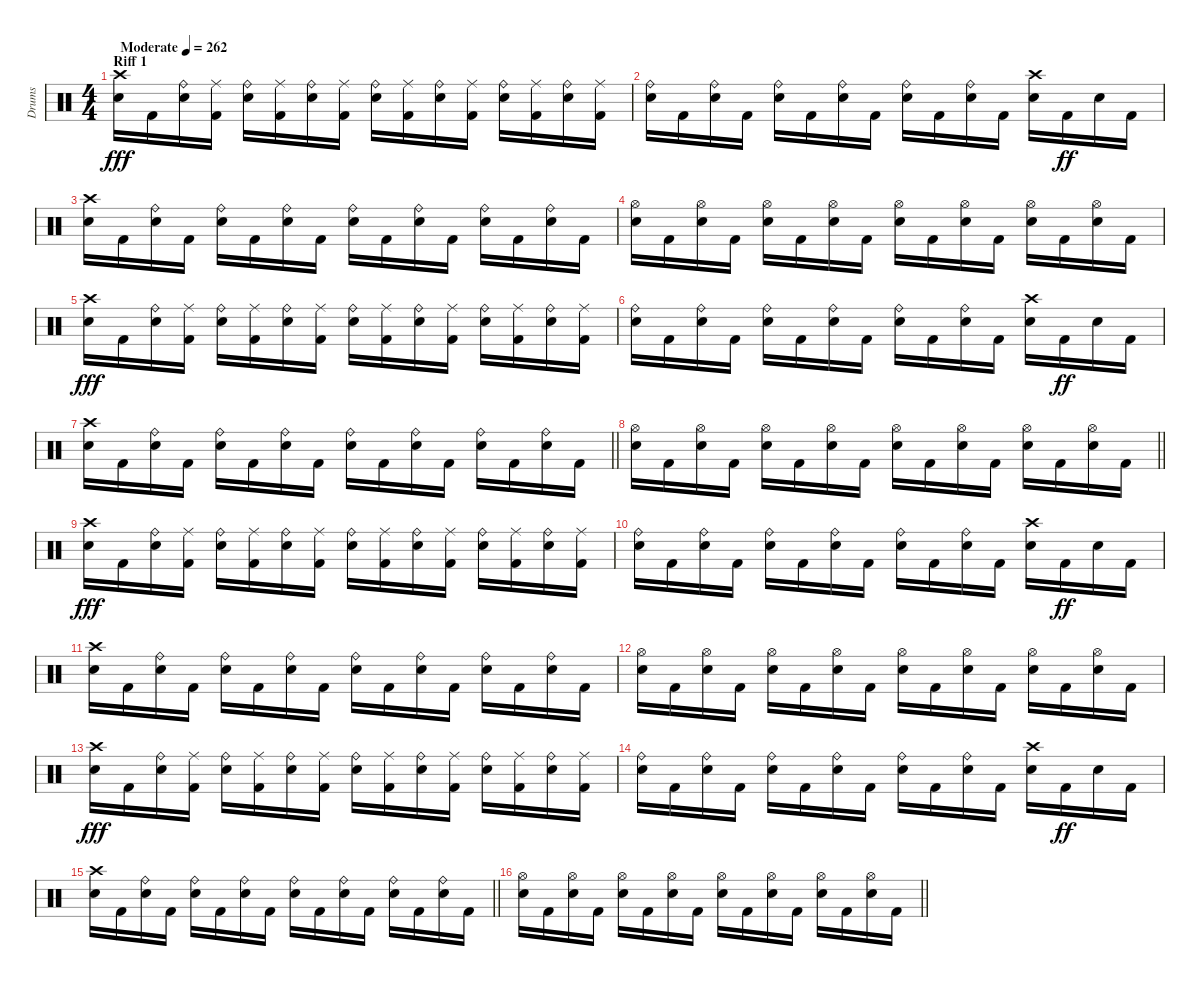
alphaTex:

\track ("Drums" "Drums") {instrument percussion}
\staff {score}
\articulation defaults
\ts (4 4)
\section ("" "Riff 1")
\tempo (262 "Moderate")
\clef neutral
\ks c
("Crash high (hit)" "Snare (hit) 2").16{dy fff} "Kick (hit) 2".16 ("Snare (hit) 2" "Ride (bell)").16 ("Kick (hit) 2" "Ride (middle)").16 ("Snare (hit) 2" "Ride (bell)").16 ("Kick (hit) 2" "Ride (middle)").16 ("Snare (hit) 2" "Ride (bell)").16 ("Kick (hit) 2" "Ride (middle)").16 ("Snare (hit) 2" "Ride (bell)").16 ("Kick (hit) 2" "Ride (middle)").16 ("Snare (hit) 2" "Ride (bell)").16 ("Kick (hit) 2" "Ride (middle)").16 ("Snare (hit) 2" "Ride (bell)").16 ("Kick (hit) 2" "Ride (middle)").16 ("Snare (hit) 2" "Ride (bell)").16 ("Kick (hit) 2" "Ride (middle)").16 |
("Snare (hit) 2" "Ride (bell)").16 "Kick (hit) 2".16 ("Snare (hit) 2" "Ride (bell)").16 "Kick (hit) 2".16 ("Snare (hit) 2" "Ride (bell)").16 "Kick (hit) 2".16 ("Snare (hit) 2" "Ride (bell)").16 "Kick (hit) 2".16 ("Snare (hit) 2" "Ride (bell)").16 "Kick (hit) 2".16 ("Snare (hit) 2" "Ride (bell)").16 "Kick (hit) 2".16 ("Crash high (hit)" "Snare (hit) 2").16 "Kick (hit) 2".16{dy ff} "Snare (hit) 2".16 "Kick (hit) 2".16 |
("Crash high (hit)" "Snare (hit) 2").16 "Kick (hit) 2".16 ("Snare (hit) 2" "Ride (bell)").16 "Kick (hit) 2".16 ("Snare (hit) 2" "Ride (bell)").16 "Kick (hit) 2".16 ("Snare (hit) 2" "Ride (bell)").16 "Kick (hit) 2".16 ("Snare (hit) 2" "Ride (bell)").16 "Kick (hit) 2".16 ("Snare (hit) 2" "Ride (bell)").16 "Kick (hit) 2".16 ("Snare (hit) 2" "Ride (bell)").16 "Kick (hit) 2".16 ("Snare (hit) 2" "Ride (bell)").16 "Kick (hit) 2".16 |
("Hi-Hat (open)" "Snare (hit) 2").16 "Kick (hit) 2".16 ("Hi-Hat (open)" "Snare (hit) 2").16 "Kick (hit) 2".16 ("Hi-Hat (open)" "Snare (hit) 2").16 "Kick (hit) 2".16 ("Hi-Hat (open)" "Snare (hit) 2").16 "Kick (hit) 2".16 ("Hi-Hat (open)" "Snare (hit) 2").16 "Kick (hit) 2".16 ("Hi-Hat (open)" "Snare (hit) 2").16 "Kick (hit) 2".16 ("Hi-Hat (open)" "Snare (hit) 2").16 "Kick (hit) 2".16 ("Hi-Hat (open)" "Snare (hit) 2").16 "Kick (hit) 2".16 |
("Crash high (hit)" "Snare (hit) 2").16{dy fff} "Kick (hit) 2".16 ("Snare (hit) 2" "Ride (bell)").16 ("Kick (hit) 2" "Ride (middle)").16 ("Snare (hit) 2" "Ride (bell)").16 ("Kick (hit) 2" "Ride (middle)").16 ("Snare (hit) 2" "Ride (bell)").16 ("Kick (hit) 2" "Ride (middle)").16 ("Snare (hit) 2" "Ride (bell)").16 ("Kick (hit) 2" "Ride (middle)").16 ("Snare (hit) 2" "Ride (bell)").16 ("Kick (hit) 2" "Ride (middle)").16 ("Snare (hit) 2" "Ride (bell)").16 ("Kick (hit) 2" "Ride (middle)").16 ("Snare (hit) 2" "Ride (bell)").16 ("Kick (hit) 2" "Ride (middle)").16 |
("Snare (hit) 2" "Ride (bell)").16 "Kick (hit) 2".16 ("Snare (hit) 2" "Ride (bell)").16 "Kick (hit) 2".16 ("Snare (hit) 2" "Ride (bell)").16 "Kick (hit) 2".16 ("Snare (hit) 2" "Ride (bell)").16 "Kick (hit) 2".16 ("Snare (hit) 2" "Ride (bell)").16 "Kick (hit) 2".16 ("Snare (hit) 2" "Ride (bell)").16 "Kick (hit) 2".16 ("Crash high (hit)" "Snare (hit) 2").16 "Kick (hit) 2".16{dy ff} "Snare (hit) 2".16 "Kick (hit) 2".16 |
\barLineRight lightlight
("Crash high (hit)" "Snare (hit) 2").16 "Kick (hit) 2".16 ("Snare (hit) 2" "Ride (bell)").16 "Kick (hit) 2".16 ("Snare (hit) 2" "Ride (bell)").16 "Kick (hit) 2".16 ("Snare (hit) 2" "Ride (bell)").16 "Kick (hit) 2".16 ("Snare (hit) 2" "Ride (bell)").16 "Kick (hit) 2".16 ("Snare (hit) 2" "Ride (bell)").16 "Kick (hit) 2".16 ("Snare (hit) 2" "Ride (bell)").16 "Kick (hit) 2".16 ("Snare (hit) 2" "Ride (bell)").16 "Kick (hit) 2".16 |
\barLineRight lightlight
("Hi-Hat (open)" "Snare (hit) 2").16 "Kick (hit) 2".16 ("Hi-Hat (open)" "Snare (hit) 2").16 "Kick (hit) 2".16 ("Hi-Hat (open)" "Snare (hit) 2").16 "Kick (hit) 2".16 ("Hi-Hat (open)" "Snare (hit) 2").16 "Kick (hit) 2".16 ("Hi-Hat (open)" "Snare (hit) 2").16 "Kick (hit) 2".16 ("Hi-Hat (open)" "Snare (hit) 2").16 "Kick (hit) 2".16 ("Hi-Hat (open)" "Snare (hit) 2").16 "Kick (hit) 2".16 ("Hi-Hat (open)" "Snare (hit) 2").16 "Kick (hit) 2".16 |
("Crash high (hit)" "Snare (hit) 2").16{dy fff} "Kick (hit) 2".16 ("Snare (hit) 2" "Ride (bell)").16 ("Kick (hit) 2" "Ride (middle)").16 ("Snare (hit) 2" "Ride (bell)").16 ("Kick (hit) 2" "Ride (middle)").16 ("Snare (hit) 2" "Ride (bell)").16 ("Kick (hit) 2" "Ride (middle)").16 ("Snare (hit) 2" "Ride (bell)").16 ("Kick (hit) 2" "Ride (middle)").16 ("Snare (hit) 2" "Ride (bell)").16 ("Kick (hit) 2" "Ride (middle)").16 ("Snare (hit) 2" "Ride (bell)").16 ("Kick (hit) 2" "Ride (middle)").16 ("Snare (hit) 2" "Ride (bell)").16 ("Kick (hit) 2" "Ride (middle)").16 |
("Snare (hit) 2" "Ride (bell)").16 "Kick (hit) 2".16 ("Snare (hit) 2" "Ride (bell)").16 "Kick (hit) 2".16 ("Snare (hit) 2" "Ride (bell)").16 "Kick (hit) 2".16 ("Snare (hit) 2" "Ride (bell)").16 "Kick (hit) 2".16 ("Snare (hit) 2" "Ride (bell)").16 "Kick (hit) 2".16 ("Snare (hit) 2" "Ride (bell)").16 "Kick (hit) 2".16 ("Crash high (hit)" "Snare (hit) 2").16 "Kick (hit) 2".16{dy ff} "Snare (hit) 2".16 "Kick (hit) 2".16 |
("Crash high (hit)" "Snare (hit) 2").16 "Kick (hit) 2".16 ("Snare (hit) 2" "Ride (bell)").16 "Kick (hit) 2".16 ("Snare (hit) 2" "Ride (bell)").16 "Kick (hit) 2".16 ("Snare (hit) 2" "Ride (bell)").16 "Kick (hit) 2".16 ("Snare (hit) 2" "Ride (bell)").16 "Kick (hit) 2".16 ("Snare (hit) 2" "Ride (bell)").16 "Kick (hit) 2".16 ("Snare (hit) 2" "Ride (bell)").16 "Kick (hit) 2".16 ("Snare (hit) 2" "Ride (bell)").16 "Kick (hit) 2".16 |
("Hi-Hat (open)" "Snare (hit) 2").16 "Kick (hit) 2".16 ("Hi-Hat (open)" "Snare (hit) 2").16 "Kick (hit) 2".16 ("Hi-Hat (open)" "Snare (hit) 2").16 "Kick (hit) 2".16 ("Hi-Hat (open)" "Snare (hit) 2").16 "Kick (hit) 2".16 ("Hi-Hat (open)" "Snare (hit) 2").16 "Kick (hit) 2".16 ("Hi-Hat (open)" "Snare (hit) 2").16 "Kick (hit) 2".16 ("Hi-Hat (open)" "Snare (hit) 2").16 "Kick (hit) 2".16 ("Hi-Hat (open)" "Snare (hit) 2").16 "Kick (hit) 2".16 |
("Crash high (hit)" "Snare (hit) 2").16{dy fff} "Kick (hit) 2".16 ("Snare (hit) 2" "Ride (bell)").16 ("Kick (hit) 2" "Ride (middle)").16 ("Snare (hit) 2" "Ride (bell)").16 ("Kick (hit) 2" "Ride (middle)").16 ("Snare (hit) 2" "Ride (bell)").16 ("Kick (hit) 2" "Ride (middle)").16 ("Snare (hit) 2" "Ride (bell)").16 ("Kick (hit) 2" "Ride (middle)").16 ("Snare (hit) 2" "Ride (bell)").16 ("Kick (hit) 2" "Ride (middle)").16 ("Snare (hit) 2" "Ride (bell)").16 ("Kick (hit) 2" "Ride (middle)").16 ("Snare (hit) 2" "Ride (bell)").16 ("Kick (hit) 2" "Ride (middle)").16 |
("Snare (hit) 2" "Ride (bell)").16 "Kick (hit) 2".16 ("Snare (hit) 2" "Ride (bell)").16 "Kick (hit) 2".16 ("Snare (hit) 2" "Ride (bell)").16 "Kick (hit) 2".16 ("Snare (hit) 2" "Ride (bell)").16 "Kick (hit) 2".16 ("Snare (hit) 2" "Ride (bell)").16 "Kick (hit) 2".16 ("Snare (hit) 2" "Ride (bell)").16 "Kick (hit) 2".16 ("Crash high (hit)" "Snare (hit) 2").16 "Kick (hit) 2".16{dy ff} "Snare (hit) 2".16 "Kick (hit) 2".16 |
\barLineRight lightlight
("Crash high (hit)" "Snare (hit) 2").16 "Kick (hit) 2".16 ("Snare (hit) 2" "Ride (bell)").16 "Kick (hit) 2".16 ("Snare (hit) 2" "Ride (bell)").16 "Kick (hit) 2".16 ("Snare (hit) 2" "Ride (bell)").16 "Kick (hit) 2".16 ("Snare (hit) 2" "Ride (bell)").16 "Kick (hit) 2".16 ("Snare (hit) 2" "Ride (bell)").16 "Kick (hit) 2".16 ("Snare (hit) 2" "Ride (bell)").16 "Kick (hit) 2".16 ("Snare (hit) 2" "Ride (bell)").16 "Kick (hit) 2".16 |
\barLineRight lightlight
("Hi-Hat (open)" "Snare (hit) 2").16 "Kick (hit) 2".16 ("Hi-Hat (open)" "Snare (hit) 2").16 "Kick (hit) 2".16 ("Hi-Hat (open)" "Snare (hit) 2").16 "Kick (hit) 2".16 ("Hi-Hat (open)" "Snare (hit) 2").16 "Kick (hit) 2".16 ("Hi-Hat (open)" "Snare (hit) 2").16 "Kick (hit) 2".16 ("Hi-Hat (open)" "Snare (hit) 2").16 "Kick (hit) 2".16 ("Hi-Hat (open)" "Snare (hit) 2").16 "Kick (hit) 2".16 ("Hi-Hat (open)" "Snare (hit) 2").16 "Kick (hit) 2".16
